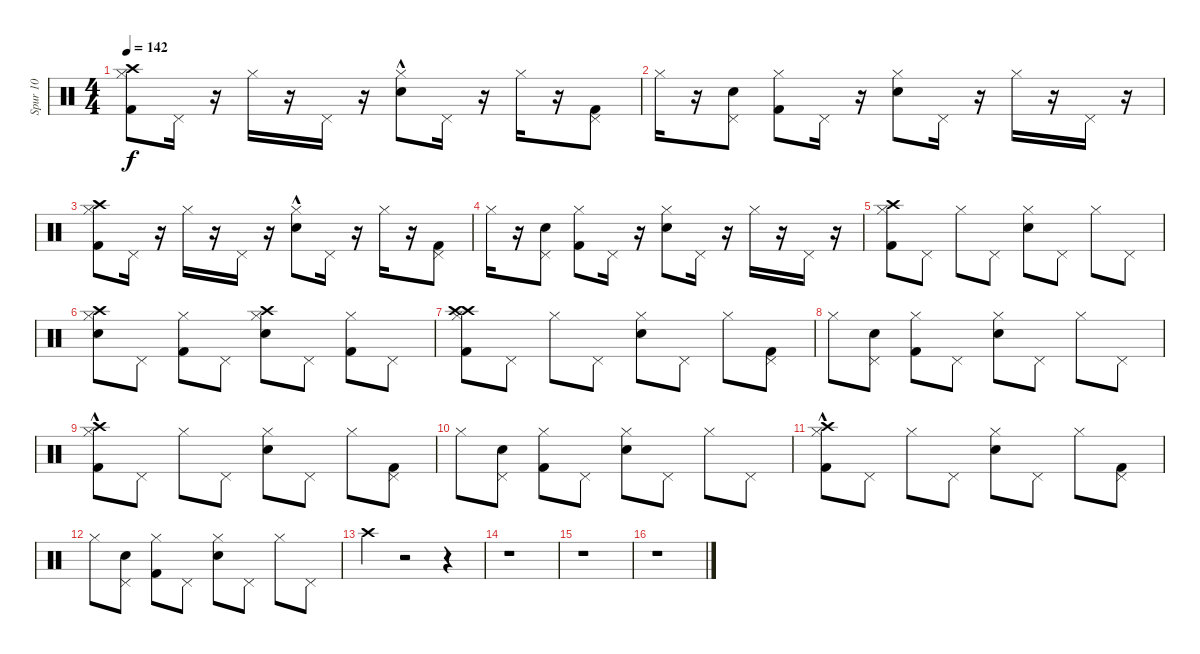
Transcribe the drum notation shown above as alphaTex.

\track ("Spur 10" "Spur 10") {instrument percussion}
\staff {score}
\articulation defaults
\ts (4 4)
\tempo 142
\clef neutral
\ks c
("Crash high (hit)" "Kick (hit) 2" "Hi-Hat (closed)").8{dy f} "Pedal Hi-Hat (hit)".16 r.16 "Hi-Hat (closed)".16 r.16 "Pedal Hi-Hat (hit)".16 r.16 ("Snare (hit) 2"{hac} "Hi-Hat (closed)").8 "Pedal Hi-Hat (hit)".16 r.16 "Hi-Hat (closed)".16 r.16 ("Kick (hit) 2" "Pedal Hi-Hat (hit)").8 |
"Hi-Hat (closed)".16 r.16 ("Snare (hit) 2" "Pedal Hi-Hat (hit)").8 ("Kick (hit) 2" "Hi-Hat (closed)").8 "Pedal Hi-Hat (hit)".16 r.16 ("Snare (hit) 2" "Hi-Hat (closed)").8 "Pedal Hi-Hat (hit)".16 r.16 "Hi-Hat (closed)".16 r.16 "Pedal Hi-Hat (hit)".16 r.16 |
("Crash high (hit)" "Kick (hit) 2" "Hi-Hat (closed)").8 "Pedal Hi-Hat (hit)".16 r.16 "Hi-Hat (closed)".16 r.16 "Pedal Hi-Hat (hit)".16 r.16 ("Snare (hit) 2"{hac} "Hi-Hat (closed)").8 "Pedal Hi-Hat (hit)".16 r.16 "Hi-Hat (closed)".16 r.16 ("Kick (hit) 2" "Pedal Hi-Hat (hit)").8 |
"Hi-Hat (closed)".16 r.16 ("Snare (hit) 2" "Pedal Hi-Hat (hit)").8 ("Kick (hit) 2" "Hi-Hat (closed)").8 "Pedal Hi-Hat (hit)".16 r.16 ("Snare (hit) 2" "Hi-Hat (closed)").8 "Pedal Hi-Hat (hit)".16 r.16 "Hi-Hat (closed)".16 r.16 "Pedal Hi-Hat (hit)".16 r.16 |
("Crash high (hit)" "Kick (hit) 2" "Hi-Hat (closed)").8 "Pedal Hi-Hat (hit)".8 "Hi-Hat (closed)".8 "Pedal Hi-Hat (hit)".8 ("Snare (hit) 2" "Hi-Hat (closed)").8 "Pedal Hi-Hat (hit)".8 "Hi-Hat (closed)".8 "Pedal Hi-Hat (hit)".8 |
("Snare (hit) 2" "Crash high (hit)" "Hi-Hat (closed)").8 "Pedal Hi-Hat (hit)".8 ("Kick (hit) 2" "Hi-Hat (closed)").8 "Pedal Hi-Hat (hit)".8 ("Snare (hit) 2" "Crash high (hit)" "Hi-Hat (closed)").8 "Pedal Hi-Hat (hit)".8 ("Kick (hit) 2" "Hi-Hat (closed)").8 "Pedal Hi-Hat (hit)".8 |
("Crash high (hit)" "Crash high (hit)" "Kick (hit) 2" "Hi-Hat (closed)").8 "Pedal Hi-Hat (hit)".8 "Hi-Hat (closed)".8 "Pedal Hi-Hat (hit)".8 ("Snare (hit) 2" "Hi-Hat (closed)").8 "Pedal Hi-Hat (hit)".8 "Hi-Hat (closed)".8 ("Kick (hit) 2" "Pedal Hi-Hat (hit)").8 |
"Hi-Hat (closed)".8 ("Snare (hit) 2" "Pedal Hi-Hat (hit)").8 ("Kick (hit) 2" "Hi-Hat (closed)").8 "Pedal Hi-Hat (hit)".8 ("Snare (hit) 2" "Hi-Hat (closed)").8 "Pedal Hi-Hat (hit)".8 "Hi-Hat (closed)".8 "Pedal Hi-Hat (hit)".8 |
("Crash high (hit)"{hac} "Kick (hit) 2" "Hi-Hat (closed)").8 "Pedal Hi-Hat (hit)".8 "Hi-Hat (closed)".8 "Pedal Hi-Hat (hit)".8 ("Snare (hit) 2" "Hi-Hat (closed)").8 "Pedal Hi-Hat (hit)".8 "Hi-Hat (closed)".8 ("Kick (hit) 2" "Pedal Hi-Hat (hit)").8 |
"Hi-Hat (closed)".8 ("Snare (hit) 2" "Pedal Hi-Hat (hit)").8 ("Kick (hit) 2" "Hi-Hat (closed)").8 "Pedal Hi-Hat (hit)".8 ("Snare (hit) 2" "Hi-Hat (closed)").8 "Pedal Hi-Hat (hit)".8 "Hi-Hat (closed)".8 "Pedal Hi-Hat (hit)".8 |
("Crash high (hit)"{hac} "Kick (hit) 2" "Hi-Hat (closed)").8 "Pedal Hi-Hat (hit)".8 "Hi-Hat (closed)".8 "Pedal Hi-Hat (hit)".8 ("Snare (hit) 2" "Hi-Hat (closed)").8 "Pedal Hi-Hat (hit)".8 "Hi-Hat (closed)".8 ("Kick (hit) 2" "Pedal Hi-Hat (hit)").8 |
"Hi-Hat (closed)".8 ("Snare (hit) 2" "Pedal Hi-Hat (hit)").8 ("Kick (hit) 2" "Hi-Hat (closed)").8 "Pedal Hi-Hat (hit)".8 ("Snare (hit) 2" "Hi-Hat (closed)").8 "Pedal Hi-Hat (hit)".8 "Hi-Hat (closed)".8 "Pedal Hi-Hat (hit)".8 |
"Crash high (hit)".4 r.2 r.4 |
r.1 |
r.1 |
r.1
